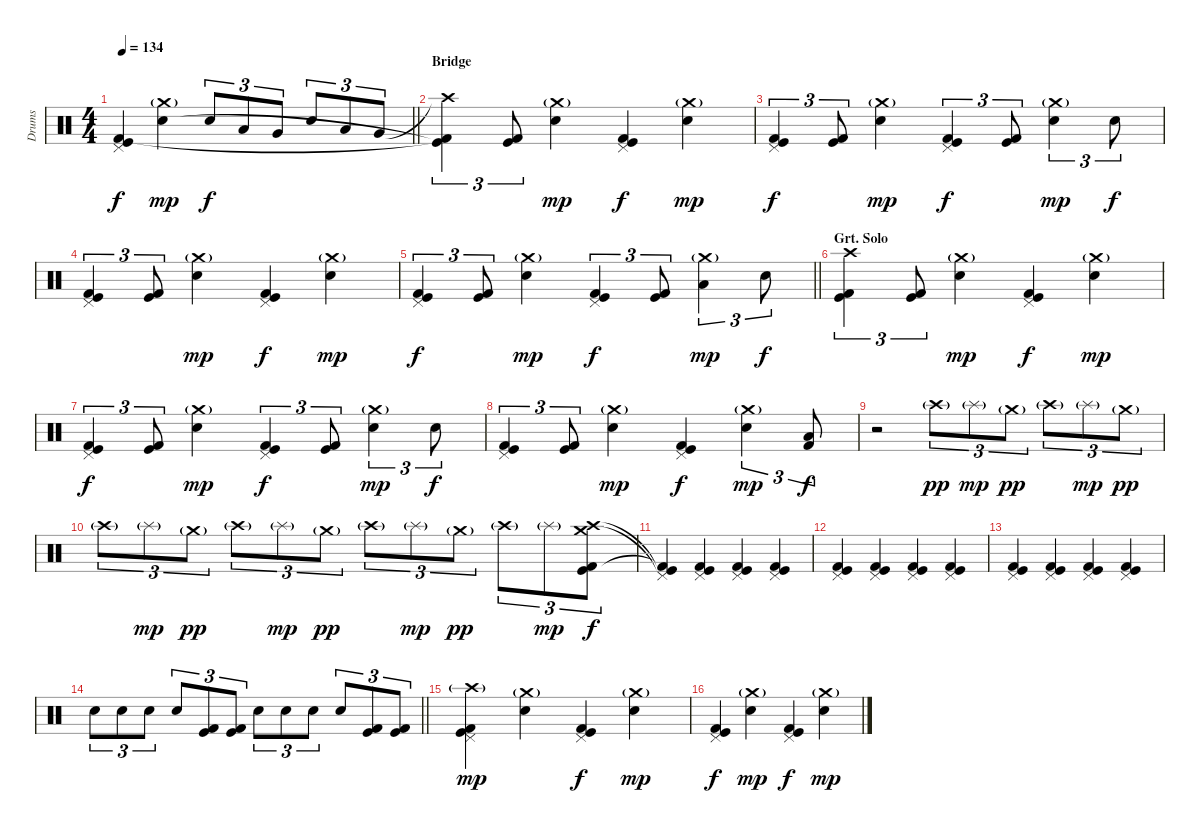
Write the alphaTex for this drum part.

\track ("Drums" "Drums") {instrument percussion}
\staff {score}
\articulation defaults
\ts (4 4)
\tempo 134
\clef neutral
\barLineRight lightlight
\ks c
("Pedal Hi-Hat (hit)" "Kick (hit)" "Kick (hit) 2").4{dy f} ("Crash medium (hit)"{g} "Electric Snare (hit)").4{dy mp} "Electric Snare (hit)".8{tu (3 2) dy f} "Low Tom (hit)".8{tu (3 2)} "Very Low Tom (hit)".8{tu (3 2)} "Electric Snare (hit)".8{tu (3 2)} "Low Tom (hit)".8{tu (3 2)} "Very Low Tom (hit)".8{tu (3 2)} |
\section ("" "Bridge")
("Crash high (hit)"{t} "Kick (hit)"{t} "Kick (hit) 2"{t}).4{tu (3 2)} ("Kick (hit)" "Kick (hit) 2").8{tu (3 2)} ("Crash medium (hit)"{g} "Electric Snare (hit)").4{dy mp} ("Pedal Hi-Hat (hit)" "Kick (hit)" "Kick (hit) 2").4{dy f} ("Crash medium (hit)"{g} "Electric Snare (hit)").4{dy mp} |
("Pedal Hi-Hat (hit)" "Kick (hit)" "Kick (hit) 2").4{tu (3 2) dy f} ("Kick (hit)" "Kick (hit) 2").8{tu (3 2)} ("Crash medium (hit)"{g} "Electric Snare (hit)").4{dy mp} ("Pedal Hi-Hat (hit)" "Kick (hit)" "Kick (hit) 2").4{tu (3 2) dy f} ("Kick (hit)" "Kick (hit) 2").8{tu (3 2)} ("Crash medium (hit)"{g} "Electric Snare (hit)").4{tu (3 2) dy mp} "Electric Snare (hit)".8{tu (3 2) dy f} |
("Pedal Hi-Hat (hit)" "Kick (hit)" "Kick (hit) 2").4{tu (3 2)} ("Kick (hit)" "Kick (hit) 2").8{tu (3 2)} ("Crash medium (hit)"{g} "Electric Snare (hit)").4{dy mp} ("Pedal Hi-Hat (hit)" "Kick (hit)" "Kick (hit) 2").4{dy f} ("Crash medium (hit)"{g} "Electric Snare (hit)").4{dy mp} |
\barLineRight lightlight
("Pedal Hi-Hat (hit)" "Kick (hit)" "Kick (hit) 2").4{tu (3 2) dy f} ("Kick (hit)" "Kick (hit) 2").8{tu (3 2)} ("Crash medium (hit)"{g} "Electric Snare (hit)").4{dy mp} ("Pedal Hi-Hat (hit)" "Kick (hit)" "Kick (hit) 2").4{tu (3 2) dy f} ("Kick (hit)" "Kick (hit) 2").8{tu (3 2)} ("Crash medium (hit)"{g} "Low Tom (hit)").4{tu (3 2) dy mp} "Electric Snare (hit)".8{tu (3 2) dy f} |
\section ("" "Grt. Solo")
("Crash high (hit)" "Kick (hit)" "Kick (hit) 2").4{tu (3 2)} ("Kick (hit)" "Kick (hit) 2").8{tu (3 2)} ("Crash medium (hit)"{g} "Electric Snare (hit)").4{dy mp} ("Pedal Hi-Hat (hit)" "Kick (hit)" "Kick (hit) 2").4{dy f} ("Crash medium (hit)"{g} "Electric Snare (hit)").4{dy mp} |
("Pedal Hi-Hat (hit)" "Kick (hit)" "Kick (hit) 2").4{tu (3 2) dy f} ("Kick (hit)" "Kick (hit) 2").8{tu (3 2)} ("Crash medium (hit)"{g} "Electric Snare (hit)").4{dy mp} ("Pedal Hi-Hat (hit)" "Kick (hit)" "Kick (hit) 2").4{tu (3 2) dy f} ("Kick (hit)" "Kick (hit) 2").8{tu (3 2)} ("Crash medium (hit)"{g} "Electric Snare (hit)").4{tu (3 2) dy mp} "Electric Snare (hit)".8{tu (3 2) dy f} |
("Pedal Hi-Hat (hit)" "Kick (hit)" "Kick (hit) 2").4{tu (3 2)} ("Kick (hit)" "Kick (hit) 2").8{tu (3 2)} ("Crash medium (hit)"{g} "Electric Snare (hit)").4{dy mp} ("Pedal Hi-Hat (hit)" "Kick (hit)" "Kick (hit) 2").4{dy f} ("Crash medium (hit)"{g} "Electric Snare (hit)").4{tu (3 2) dy mp} ("Kick (hit) 2" "Low Floor Tom (hit)").8{tu (3 2) dy f} |
r.2 "Crash high (hit)"{g}.8{tu (3 2) dy pp} "Splash (hit)"{g}.8{tu (3 2) dy mp} "Crash medium (hit)"{g}.8{tu (3 2) dy pp} "Crash high (hit)"{g}.8{tu (3 2)} "Splash (hit)"{g}.8{tu (3 2) dy mp} "Crash medium (hit)"{g}.8{tu (3 2) dy pp} |
"Crash high (hit)"{g}.8{tu (3 2)} "Splash (hit)"{g}.8{tu (3 2) dy mp} "Crash medium (hit)"{g}.8{tu (3 2) dy pp} "Crash high (hit)"{g}.8{tu (3 2)} "Splash (hit)"{g}.8{tu (3 2) dy mp} "Crash medium (hit)"{g}.8{tu (3 2) dy pp} "Crash high (hit)"{g}.8{tu (3 2)} "Splash (hit)"{g}.8{tu (3 2) dy mp} "Crash medium (hit)"{g}.8{tu (3 2) dy pp} "Crash high (hit)"{g}.8{tu (3 2)} "Splash (hit)"{g}.8{tu (3 2) dy mp} ("Crash medium (hit)" "Crash high (hit)" "Kick (hit)" "Kick (hit) 2").8{tu (3 2) dy f} |
("Pedal Hi-Hat (hit)"{t} "Kick (hit)"{t} "Kick (hit) 2"{t}).4 ("Pedal Hi-Hat (hit)" "Kick (hit)" "Kick (hit) 2").4 ("Pedal Hi-Hat (hit)" "Kick (hit)" "Kick (hit) 2").4 ("Pedal Hi-Hat (hit)" "Kick (hit)" "Kick (hit) 2").4 |
("Pedal Hi-Hat (hit)" "Kick (hit)" "Kick (hit) 2").4 ("Pedal Hi-Hat (hit)" "Kick (hit)" "Kick (hit) 2").4 ("Pedal Hi-Hat (hit)" "Kick (hit)" "Kick (hit) 2").4 ("Pedal Hi-Hat (hit)" "Kick (hit)" "Kick (hit) 2").4 |
("Pedal Hi-Hat (hit)" "Kick (hit)" "Kick (hit) 2").4 ("Pedal Hi-Hat (hit)" "Kick (hit)" "Kick (hit) 2").4 ("Pedal Hi-Hat (hit)" "Kick (hit)" "Kick (hit) 2").4 ("Pedal Hi-Hat (hit)" "Kick (hit)" "Kick (hit) 2").4 |
\barLineRight lightlight "Electric Snare (hit)".8{tu (3 2)} "Electric Snare (hit)".8{tu (3 2)} "Electric Snare (hit)".8{tu (3 2)} "Electric Snare (hit)".8{tu (3 2)}
("Kick (hit)" "Kick (hit) 2").8{tu (3 2)} ("Kick (hit)" "Kick (hit) 2").8{tu (3 2)} "Electric Snare (hit)".8{tu (3 2)} "Electric Snare (hit)".8{tu (3 2)} "Electric Snare (hit)".8{tu (3 2)} "Electric Snare (hit)".8{tu (3 2)} ("Kick (hit)" "Kick (hit) 2").8{tu (3 2)} ("Kick (hit)" "Kick (hit) 2").8{tu (3 2)} |
("Pedal Hi-Hat (hit)" "Crash high (hit)"{g} "Kick (hit)" "Kick (hit) 2").4{dy mp} ("Crash medium (hit)"{g} "Electric Snare (hit)").4 ("Pedal Hi-Hat (hit)" "Kick (hit)" "Kick (hit) 2").4{dy f} ("Crash medium (hit)"{g} "Electric Snare (hit)").4{dy mp} |
("Pedal Hi-Hat (hit)" "Kick (hit)" "Kick (hit) 2").4{dy f} ("Crash medium (hit)"{g} "Electric Snare (hit)").4{dy mp} ("Pedal Hi-Hat (hit)" "Kick (hit)" "Kick (hit) 2").4{dy f} ("Crash medium (hit)"{g} "Electric Snare (hit)").4{dy mp}
